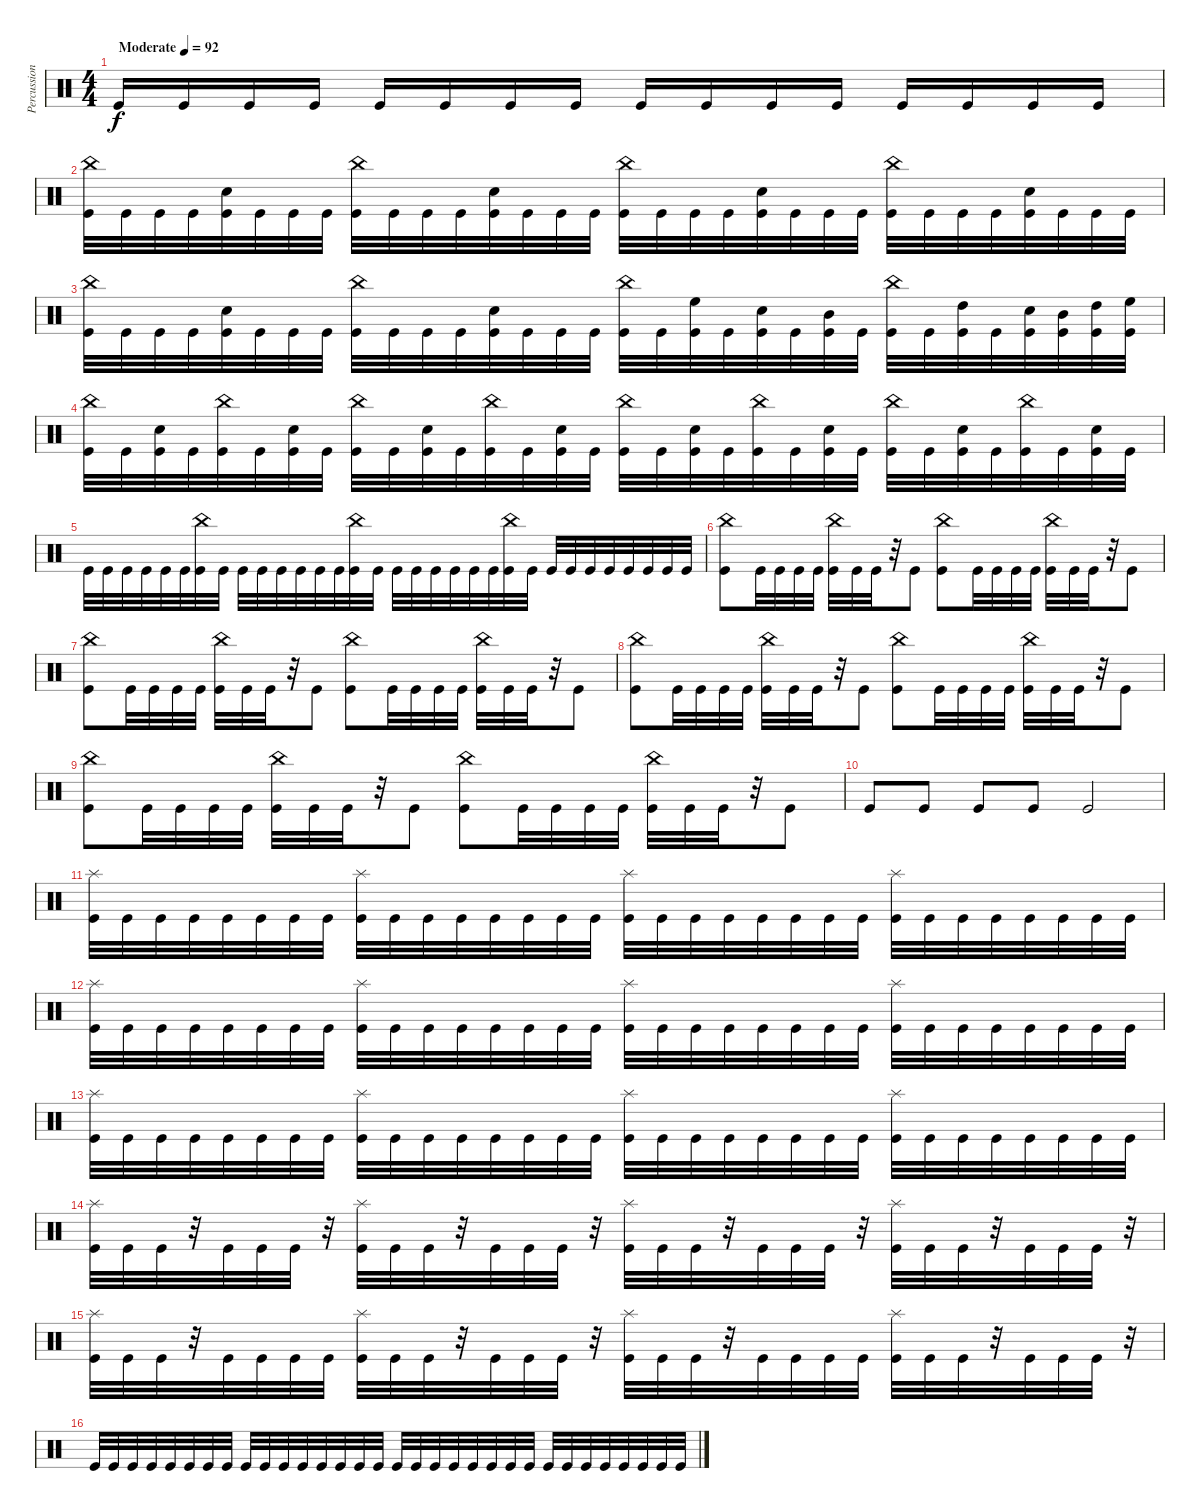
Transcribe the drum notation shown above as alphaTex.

\track ("Percussion" "Percussion") {instrument percussion}
\staff {score}
\articulation defaults
\ts (4 4)
\tempo (92 "Moderate")
\clef neutral
\ks c "Kick (hit)".16{dy f} "Kick (hit)".16 "Kick (hit)".16 "Kick (hit)".16 "Kick (hit)".16 "Kick (hit)".16 "Kick (hit)".16 "Kick (hit)".16 "Kick (hit)".16 "Kick (hit)".16 "Kick (hit)".16 "Kick (hit)".16 "Kick (hit)".16 "Kick (hit)".16 "Kick (hit)".16 "Kick (hit)".16
|
("China (hit)" "Kick (hit)").32 "Kick (hit)".32 "Kick (hit)".32 "Kick (hit)".32 ("Snare (hit) 2" "Kick (hit)").32 "Kick (hit)".32 "Kick (hit)".32 "Kick (hit)".32 ("China (hit)" "Kick (hit)").32 "Kick (hit)".32 "Kick (hit)".32 "Kick (hit)".32 ("Snare (hit) 2" "Kick (hit)").32 "Kick (hit)".32 "Kick (hit)".32 "Kick (hit)".32 ("China (hit)" "Kick (hit)").32 "Kick (hit)".32 "Kick (hit)".32 "Kick (hit)".32 ("Snare (hit) 2" "Kick (hit)").32 "Kick (hit)".32 "Kick (hit)".32 "Kick (hit)".32 ("China (hit)" "Kick (hit)").32 "Kick (hit)".32 "Kick (hit)".32 "Kick (hit)".32 ("Snare (hit) 2" "Kick (hit)").32 "Kick (hit)".32 "Kick (hit)".32 "Kick (hit)".32 |
("China (hit)" "Kick (hit)").32 "Kick (hit)".32 "Kick (hit)".32 "Kick (hit)".32 ("Snare (hit) 2" "Kick (hit)").32 "Kick (hit)".32 "Kick (hit)".32 "Kick (hit)".32 ("China (hit)" "Kick (hit)").32 "Kick (hit)".32 "Kick (hit)".32 "Kick (hit)".32 ("Snare (hit) 2" "Kick (hit)").32 "Kick (hit)".32 "Kick (hit)".32 "Kick (hit)".32 ("China (hit)" "Kick (hit)").32 "Kick (hit)".32 ("High Floor Tom (hit)" "Kick (hit)").32 "Kick (hit)".32 ("Snare (hit) 2" "Kick (hit)").32 "Kick (hit)".32 ("Mid Tom (hit)" "Kick (hit)").32 "Kick (hit)".32 ("China (hit)" "Kick (hit)").32 "Kick (hit)".32 ("High Tom (hit)" "Kick (hit)").32 "Kick (hit)".32 ("Snare (hit) 2" "Kick (hit)").32 ("Mid Tom (hit)" "Kick (hit)").32 ("High Tom (hit)" "Kick (hit)").32 ("High Floor Tom (hit)" "Kick (hit)").32 |
("China (hit)" "Kick (hit)").32 "Kick (hit)".32 ("Snare (hit) 2" "Kick (hit)").32 "Kick (hit)".32 ("China (hit)" "Kick (hit)").32 "Kick (hit)".32 ("Snare (hit) 2" "Kick (hit)").32 "Kick (hit)".32 ("China (hit)" "Kick (hit)").32 "Kick (hit)".32 ("Snare (hit) 2" "Kick (hit)").32 "Kick (hit)".32 ("China (hit)" "Kick (hit)").32 "Kick (hit)".32 ("Snare (hit) 2" "Kick (hit)").32 "Kick (hit)".32 ("China (hit)" "Kick (hit)").32 "Kick (hit)".32 ("Snare (hit) 2" "Kick (hit)").32 "Kick (hit)".32 ("China (hit)" "Kick (hit)").32 "Kick (hit)".32 ("Snare (hit) 2" "Kick (hit)").32 "Kick (hit)".32 ("China (hit)" "Kick (hit)").32 "Kick (hit)".32 ("Snare (hit) 2" "Kick (hit)").32 "Kick (hit)".32 ("China (hit)" "Kick (hit)").32 "Kick (hit)".32 ("Snare (hit) 2" "Kick (hit)").32 "Kick (hit)".32 |
"Kick (hit)".32 "Kick (hit)".32 "Kick (hit)".32 "Kick (hit)".32 "Kick (hit)".32 "Kick (hit)".32 ("China (hit)" "Kick (hit)").32 "Kick (hit)".32 "Kick (hit)".32 "Kick (hit)".32 "Kick (hit)".32 "Kick (hit)".32 "Kick (hit)".32 "Kick (hit)".32 ("China (hit)" "Kick (hit)").32 "Kick (hit)".32 "Kick (hit)".32 "Kick (hit)".32 "Kick (hit)".32 "Kick (hit)".32 "Kick (hit)".32 "Kick (hit)".32 ("China (hit)" "Kick (hit)").32 "Kick (hit)".32 "Kick (hit)".32 "Kick (hit)".32 "Kick (hit)".32 "Kick (hit)".32 "Kick (hit)".32 "Kick (hit)".32 "Kick (hit)".32 "Kick (hit)".32 |
("China (hit)" "Kick (hit)").8 "Kick (hit)".32 "Kick (hit)".32 "Kick (hit)".32 "Kick (hit)".32 ("China (hit)" "Kick (hit)").32 "Kick (hit)".32 "Kick (hit)".32 r.32 "Kick (hit)".8 ("China (hit)" "Kick (hit)").8 "Kick (hit)".32 "Kick (hit)".32 "Kick (hit)".32 "Kick (hit)".32 ("China (hit)" "Kick (hit)").32 "Kick (hit)".32 "Kick (hit)".32 r.32 "Kick (hit)".8 |
("China (hit)" "Kick (hit)").8 "Kick (hit)".32 "Kick (hit)".32 "Kick (hit)".32 "Kick (hit)".32 ("China (hit)" "Kick (hit)").32 "Kick (hit)".32 "Kick (hit)".32 r.32 "Kick (hit)".8 ("China (hit)" "Kick (hit)").8 "Kick (hit)".32 "Kick (hit)".32 "Kick (hit)".32 "Kick (hit)".32 ("China (hit)" "Kick (hit)").32 "Kick (hit)".32 "Kick (hit)".32 r.32 "Kick (hit)".8 |
("China (hit)" "Kick (hit)").8 "Kick (hit)".32 "Kick (hit)".32 "Kick (hit)".32 "Kick (hit)".32 ("China (hit)" "Kick (hit)").32 "Kick (hit)".32 "Kick (hit)".32 r.32 "Kick (hit)".8 ("China (hit)" "Kick (hit)").8 "Kick (hit)".32 "Kick (hit)".32 "Kick (hit)".32 "Kick (hit)".32 ("China (hit)" "Kick (hit)").32 "Kick (hit)".32 "Kick (hit)".32 r.32 "Kick (hit)".8 |
("China (hit)" "Kick (hit)").8 "Kick (hit)".32 "Kick (hit)".32 "Kick (hit)".32 "Kick (hit)".32 ("China (hit)" "Kick (hit)").32 "Kick (hit)".32 "Kick (hit)".32 r.32 "Kick (hit)".8 ("China (hit)" "Kick (hit)").8 "Kick (hit)".32 "Kick (hit)".32 "Kick (hit)".32 "Kick (hit)".32 ("China (hit)" "Kick (hit)").32 "Kick (hit)".32 "Kick (hit)".32 r.32 "Kick (hit)".8 |
"Kick (hit)".8 "Kick (hit)".8 "Kick (hit)".8 "Kick (hit)".8 "Kick (hit)".2 |
("Splash (hit)" "Kick (hit)").32 "Kick (hit)".32 "Kick (hit)".32 "Kick (hit)".32 "Kick (hit)".32 "Kick (hit)".32 "Kick (hit)".32 "Kick (hit)".32 ("Splash (hit)" "Kick (hit)").32 "Kick (hit)".32 "Kick (hit)".32 "Kick (hit)".32 "Kick (hit)".32 "Kick (hit)".32 "Kick (hit)".32 "Kick (hit)".32 ("Splash (hit)" "Kick (hit)").32 "Kick (hit)".32 "Kick (hit)".32 "Kick (hit)".32 "Kick (hit)".32 "Kick (hit)".32 "Kick (hit)".32 "Kick (hit)".32 ("Splash (hit)" "Kick (hit)").32 "Kick (hit)".32 "Kick (hit)".32 "Kick (hit)".32 "Kick (hit)".32 "Kick (hit)".32 "Kick (hit)".32 "Kick (hit)".32 |
("Splash (hit)" "Kick (hit)").32 "Kick (hit)".32 "Kick (hit)".32 "Kick (hit)".32 "Kick (hit)".32 "Kick (hit)".32 "Kick (hit)".32 "Kick (hit)".32 ("Splash (hit)" "Kick (hit)").32 "Kick (hit)".32 "Kick (hit)".32 "Kick (hit)".32 "Kick (hit)".32 "Kick (hit)".32 "Kick (hit)".32 "Kick (hit)".32 ("Splash (hit)" "Kick (hit)").32 "Kick (hit)".32 "Kick (hit)".32 "Kick (hit)".32 "Kick (hit)".32 "Kick (hit)".32 "Kick (hit)".32 "Kick (hit)".32 ("Splash (hit)" "Kick (hit)").32 "Kick (hit)".32 "Kick (hit)".32 "Kick (hit)".32 "Kick (hit)".32 "Kick (hit)".32 "Kick (hit)".32 "Kick (hit)".32 |
("Splash (hit)" "Kick (hit)").32 "Kick (hit)".32 "Kick (hit)".32 "Kick (hit)".32 "Kick (hit)".32 "Kick (hit)".32 "Kick (hit)".32 "Kick (hit)".32 ("Splash (hit)" "Kick (hit)").32 "Kick (hit)".32 "Kick (hit)".32 "Kick (hit)".32 "Kick (hit)".32 "Kick (hit)".32 "Kick (hit)".32 "Kick (hit)".32 ("Splash (hit)" "Kick (hit)").32 "Kick (hit)".32 "Kick (hit)".32 "Kick (hit)".32 "Kick (hit)".32 "Kick (hit)".32 "Kick (hit)".32 "Kick (hit)".32 ("Splash (hit)" "Kick (hit)").32 "Kick (hit)".32 "Kick (hit)".32 "Kick (hit)".32 "Kick (hit)".32 "Kick (hit)".32 "Kick (hit)".32 "Kick (hit)".32 |
("Splash (hit)" "Kick (hit)").32 "Kick (hit)".32 "Kick (hit)".32 r.32 "Kick (hit)".32 "Kick (hit)".32 "Kick (hit)".32 r.32 ("Splash (hit)" "Kick (hit)").32 "Kick (hit)".32 "Kick (hit)".32 r.32 "Kick (hit)".32 "Kick (hit)".32 "Kick (hit)".32 r.32 ("Splash (hit)" "Kick (hit)").32 "Kick (hit)".32 "Kick (hit)".32 r.32 "Kick (hit)".32 "Kick (hit)".32 "Kick (hit)".32 r.32 ("Splash (hit)" "Kick (hit)").32 "Kick (hit)".32 "Kick (hit)".32 r.32 "Kick (hit)".32 "Kick (hit)".32 "Kick (hit)".32 r.32 |
("Splash (hit)" "Kick (hit)").32 "Kick (hit)".32 "Kick (hit)".32 r.32 "Kick (hit)".32 "Kick (hit)".32 "Kick (hit)".32 "Kick (hit)".32 ("Splash (hit)" "Kick (hit)").32 "Kick (hit)".32 "Kick (hit)".32 r.32 "Kick (hit)".32 "Kick (hit)".32 "Kick (hit)".32 r.32 ("Splash (hit)" "Kick (hit)").32 "Kick (hit)".32 "Kick (hit)".32 r.32 "Kick (hit)".32 "Kick (hit)".32 "Kick (hit)".32 "Kick (hit)".32 ("Splash (hit)" "Kick (hit)").32 "Kick (hit)".32 "Kick (hit)".32 r.32 "Kick (hit)".32 "Kick (hit)".32 "Kick (hit)".32 r.32 |
"Kick (hit)".32 "Kick (hit)".32 "Kick (hit)".32 "Kick (hit)".32 "Kick (hit)".32 "Kick (hit)".32 "Kick (hit)".32 "Kick (hit)".32 "Kick (hit)".32 "Kick (hit)".32 "Kick (hit)".32 "Kick (hit)".32 "Kick (hit)".32 "Kick (hit)".32 "Kick (hit)".32 "Kick (hit)".32 "Kick (hit)".32 "Kick (hit)".32 "Kick (hit)".32 "Kick (hit)".32 "Kick (hit)".32 "Kick (hit)".32 "Kick (hit)".32 "Kick (hit)".32 "Kick (hit)".32 "Kick (hit)".32 "Kick (hit)".32 "Kick (hit)".32 "Kick (hit)".32 "Kick (hit)".32 "Kick (hit)".32 "Kick (hit)".32
